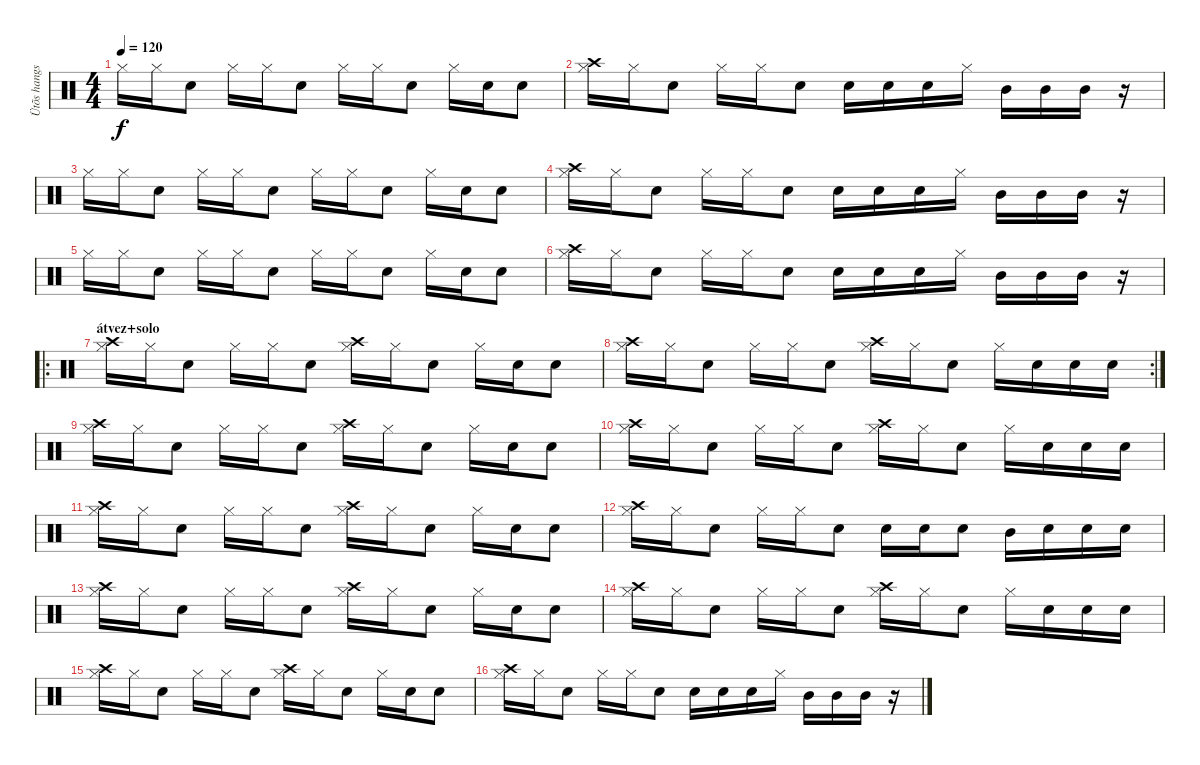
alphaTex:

\track ("Ütõs hangszer" "Ütõs hangs") {instrument percussion}
\staff {score}
\articulation defaults
\ts (4 4)
\tempo 120
\clef neutral
\ks c "Hi-Hat (closed)".16{dy f} "Hi-Hat (closed)".16 "Electric Snare (hit)".8 "Hi-Hat (closed)".16 "Hi-Hat (closed)".16 "Electric Snare (hit)".8 "Hi-Hat (closed)".16 "Hi-Hat (closed)".16 "Electric Snare (hit)".8 "Hi-Hat (closed)".16 "Snare (hit)".16 "Electric Snare (hit)".8
|
("Hi-Hat (closed)" "Crash high (hit)").16 "Hi-Hat (closed)".16 "Electric Snare (hit)".8 "Hi-Hat (closed)".16 "Hi-Hat (closed)".16 "Electric Snare (hit)".8 "Electric Snare (hit)".16 "Electric Snare (hit)".16 "Electric Snare (hit)".16 "Hi-Hat (closed)".16 "Mid Tom (hit)".16 "Mid Tom (hit)".16 "Mid Tom (hit)".16 r.16 |
"Hi-Hat (closed)".16 "Hi-Hat (closed)".16 "Electric Snare (hit)".8 "Hi-Hat (closed)".16 "Hi-Hat (closed)".16 "Electric Snare (hit)".8 "Hi-Hat (closed)".16 "Hi-Hat (closed)".16 "Electric Snare (hit)".8 "Hi-Hat (closed)".16 "Snare (hit)".16 "Electric Snare (hit)".8 |
("Hi-Hat (closed)" "Crash high (hit)").16 "Hi-Hat (closed)".16 "Electric Snare (hit)".8 "Hi-Hat (closed)".16 "Hi-Hat (closed)".16 "Electric Snare (hit)".8 "Electric Snare (hit)".16 "Electric Snare (hit)".16 "Electric Snare (hit)".16 "Hi-Hat (closed)".16 "Mid Tom (hit)".16 "Mid Tom (hit)".16 "Mid Tom (hit)".16 r.16 |
"Hi-Hat (closed)".16 "Hi-Hat (closed)".16 "Electric Snare (hit)".8 "Hi-Hat (closed)".16 "Hi-Hat (closed)".16 "Electric Snare (hit)".8 "Hi-Hat (closed)".16 "Hi-Hat (closed)".16 "Electric Snare (hit)".8 "Hi-Hat (closed)".16 "Snare (hit)".16 "Electric Snare (hit)".8 |
("Hi-Hat (closed)" "Crash high (hit)").16 "Hi-Hat (closed)".16 "Electric Snare (hit)".8 "Hi-Hat (closed)".16 "Hi-Hat (closed)".16 "Electric Snare (hit)".8 "Electric Snare (hit)".16 "Electric Snare (hit)".16 "Electric Snare (hit)".16 "Hi-Hat (closed)".16 "Mid Tom (hit)".16 "Mid Tom (hit)".16 "Mid Tom (hit)".16 r.16 |
\ro
\section ("" "átvez+solo")
("Hi-Hat (closed)" "Crash high (hit)").16 "Hi-Hat (closed)".16 "Electric Snare (hit)".8 "Hi-Hat (closed)".16 "Hi-Hat (closed)".16 "Electric Snare (hit)".8 ("Hi-Hat (closed)" "Crash high (hit)").16 "Hi-Hat (closed)".16 "Electric Snare (hit)".8 "Hi-Hat (closed)".16 "Snare (hit)".16 "Electric Snare (hit)".8 |
\rc 2
("Hi-Hat (closed)" "Crash high (hit)").16 "Hi-Hat (closed)".16 "Electric Snare (hit)".8 "Hi-Hat (closed)".16 "Hi-Hat (closed)".16 "Electric Snare (hit)".8 ("Hi-Hat (closed)" "Crash high (hit)").16 "Hi-Hat (closed)".16 "Electric Snare (hit)".8 "Hi-Hat (closed)".16 "Electric Snare (hit)".16 "Electric Snare (hit)".16 "Electric Snare (hit)".16 |
("Hi-Hat (closed)" "Crash high (hit)").16 "Hi-Hat (closed)".16 "Electric Snare (hit)".8 "Hi-Hat (closed)".16 "Hi-Hat (closed)".16 "Electric Snare (hit)".8 ("Hi-Hat (closed)" "Crash high (hit)").16 "Hi-Hat (closed)".16 "Electric Snare (hit)".8 "Hi-Hat (closed)".16 "Snare (hit)".16 "Electric Snare (hit)".8 |
("Hi-Hat (closed)" "Crash high (hit)").16 "Hi-Hat (closed)".16 "Electric Snare (hit)".8 "Hi-Hat (closed)".16 "Hi-Hat (closed)".16 "Electric Snare (hit)".8 ("Hi-Hat (closed)" "Crash high (hit)").16 "Hi-Hat (closed)".16 "Electric Snare (hit)".8 "Hi-Hat (closed)".16 "Electric Snare (hit)".16 "Electric Snare (hit)".16 "Electric Snare (hit)".16 |
("Hi-Hat (closed)" "Crash high (hit)").16 "Hi-Hat (closed)".16 "Electric Snare (hit)".8 "Hi-Hat (closed)".16 "Hi-Hat (closed)".16 "Electric Snare (hit)".8 ("Hi-Hat (closed)" "Crash high (hit)").16 "Hi-Hat (closed)".16 "Electric Snare (hit)".8 "Hi-Hat (closed)".16 "Snare (hit)".16 "Electric Snare (hit)".8 |
("Hi-Hat (closed)" "Crash high (hit)").16 "Hi-Hat (closed)".16 "Electric Snare (hit)".8 "Hi-Hat (closed)".16 "Hi-Hat (closed)".16 "Electric Snare (hit)".8 "Electric Snare (hit)".16 "Electric Snare (hit)".16 "Electric Snare (hit)".8 "Mid Tom (hit)".16 "Electric Snare (hit)".16 "Electric Snare (hit)".16 "Electric Snare (hit)".16 |
("Hi-Hat (closed)" "Crash high (hit)").16 "Hi-Hat (closed)".16 "Electric Snare (hit)".8 "Hi-Hat (closed)".16 "Hi-Hat (closed)".16 "Electric Snare (hit)".8 ("Hi-Hat (closed)" "Crash high (hit)").16 "Hi-Hat (closed)".16 "Electric Snare (hit)".8 "Hi-Hat (closed)".16 "Snare (hit)".16 "Electric Snare (hit)".8 |
("Hi-Hat (closed)" "Crash high (hit)").16 "Hi-Hat (closed)".16 "Electric Snare (hit)".8 "Hi-Hat (closed)".16 "Hi-Hat (closed)".16 "Electric Snare (hit)".8 ("Hi-Hat (closed)" "Crash high (hit)").16 "Hi-Hat (closed)".16 "Electric Snare (hit)".8 "Hi-Hat (closed)".16 "Electric Snare (hit)".16 "Electric Snare (hit)".16 "Electric Snare (hit)".16 |
("Hi-Hat (closed)" "Crash high (hit)").16 "Hi-Hat (closed)".16 "Electric Snare (hit)".8 "Hi-Hat (closed)".16 "Hi-Hat (closed)".16 "Electric Snare (hit)".8 ("Hi-Hat (closed)" "Crash high (hit)").16 "Hi-Hat (closed)".16 "Electric Snare (hit)".8 "Hi-Hat (closed)".16 "Snare (hit)".16 "Electric Snare (hit)".8 |
("Hi-Hat (closed)" "Crash high (hit)").16 "Hi-Hat (closed)".16 "Electric Snare (hit)".8 "Hi-Hat (closed)".16 "Hi-Hat (closed)".16 "Electric Snare (hit)".8 "Electric Snare (hit)".16 "Electric Snare (hit)".16 "Electric Snare (hit)".16 "Hi-Hat (closed)".16 "Mid Tom (hit)".16 "Mid Tom (hit)".16 "Mid Tom (hit)".16 r.16
